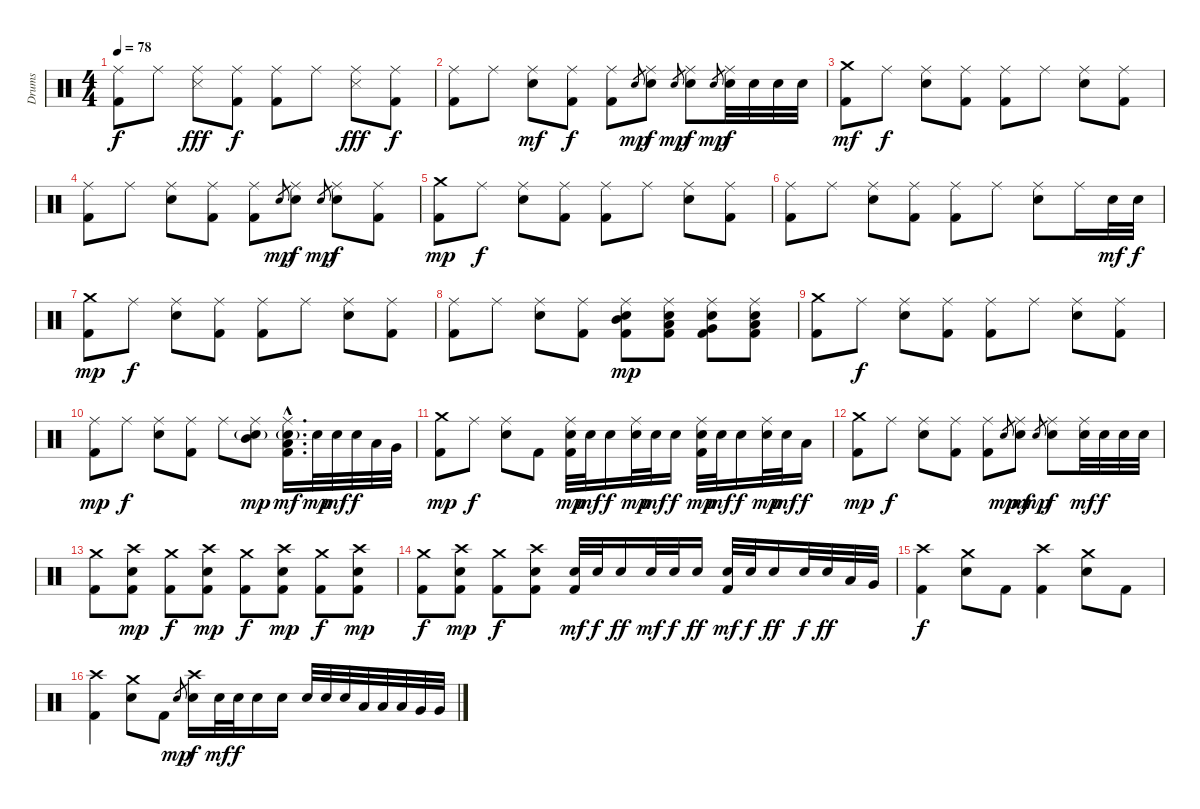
\track ("Drums" "Drums") {instrument percussion}
\staff {score}
\articulation defaults
\ts (4 4)
\tempo 78
\clef neutral
\ks c
("Ride (middle)" "Kick (hit) 2").8{dy f} "Ride (middle)".8 ("Ride (middle)" "Metronome (hit)").8{dy fff} ("Ride (middle)" "Kick (hit) 2").8{dy f} ("Ride (middle)" "Kick (hit) 2").8 "Ride (middle)".8 ("Ride (middle)" "Metronome (hit)").8{dy fff} ("Ride (middle)" "Kick (hit) 2").8{dy f} |
("Ride (middle)" "Kick (hit) 2").8 "Ride (middle)".8 ("Ride (middle)" "Electric Snare (hit)").8{dy mf} ("Ride (middle)" "Kick (hit) 2").8{dy f} ("Ride (middle)" "Kick (hit) 2").8 "Electric Snare (hit)".8{gr dy mp} ("Ride (middle)" "Electric Snare (hit)").8{dy f} "Electric Snare (hit)".8{gr dy mp} ("Ride (middle)" "Electric Snare (hit)").8{dy f} "Electric Snare (hit)".8{gr dy mp} ("Ride (middle)" "Electric Snare (hit)").32{dy f} "Electric Snare (hit)".32 "Electric Snare (hit)".32 "Electric Snare (hit)".32 |
("Crash medium (hit)" "Kick (hit) 2").8{dy mf} "Ride (middle)".8{dy f} ("Ride (middle)" "Electric Snare (hit)").8 ("Ride (middle)" "Kick (hit) 2").8 ("Ride (middle)" "Kick (hit) 2").8 "Ride (middle)".8 ("Ride (middle)" "Electric Snare (hit)").8 ("Ride (middle)" "Kick (hit) 2").8 |
("Ride (middle)" "Kick (hit) 2").8 "Ride (middle)".8 ("Ride (middle)" "Electric Snare (hit)").8 ("Ride (middle)" "Kick (hit) 2").8 ("Ride (middle)" "Kick (hit) 2").8 "Electric Snare (hit)".8{gr dy mp} ("Ride (middle)" "Electric Snare (hit)").8{dy f} "Electric Snare (hit)".8{gr dy mp} ("Ride (middle)" "Electric Snare (hit)").8{dy f} ("Ride (middle)" "Kick (hit) 2").8 |
("Crash medium (hit)" "Kick (hit) 2").8{dy mp} "Ride (middle)".8{dy f} ("Ride (middle)" "Electric Snare (hit)").8 ("Ride (middle)" "Kick (hit) 2").8 ("Ride (middle)" "Kick (hit) 2").8 "Ride (middle)".8 ("Ride (middle)" "Electric Snare (hit)").8 ("Ride (middle)" "Kick (hit) 2").8 |
("Ride (middle)" "Kick (hit) 2").8 "Ride (middle)".8 ("Ride (middle)" "Electric Snare (hit)").8 ("Ride (middle)" "Kick (hit) 2").8 ("Ride (middle)" "Kick (hit) 2").8 "Ride (middle)".8 ("Ride (middle)" "Electric Snare (hit)").8 "Ride (middle)".16 "Electric Snare (hit)".32{dy mf} "Electric Snare (hit)".32{dy f} |
("Crash medium (hit)" "Kick (hit) 2").8{dy mp} "Ride (middle)".8{dy f} ("Ride (middle)" "Electric Snare (hit)").8 ("Ride (middle)" "Kick (hit) 2").8 ("Ride (middle)" "Kick (hit) 2").8 "Ride (middle)".8 ("Ride (middle)" "Electric Snare (hit)").8 ("Ride (middle)" "Kick (hit) 2").8 |
("Ride (middle)" "Kick (hit) 2").8{volume 10} "Ride (middle)".8 ("Ride (middle)" "Electric Snare (hit)").8 ("Ride (middle)" "Kick (hit) 2").8 ("Ride (middle)" "Mid Tom (hit)" "Electric Snare (hit)" "Kick (hit) 2").8{dy mp} ("Ride (middle)" "Low Tom (hit)" "Electric Snare (hit)" "Kick (hit) 2").8 ("Ride (middle)" "Very Low Tom (hit)" "Electric Snare (hit)" "Kick (hit) 2").8 ("Ride (middle)" "Low Floor Tom (hit)" "Electric Snare (hit)" "Kick (hit) 2").8 |
("Crash medium (hit)" "Kick (hit) 2").8 "Ride (middle)".8{dy f} ("Ride (middle)" "Electric Snare (hit)").8 ("Ride (middle)" "Kick (hit) 2").8 ("Ride (middle)" "Kick (hit) 2").8 "Ride (middle)".8 ("Ride (middle)" "Electric Snare (hit)").8 ("Ride (middle)" "Kick (hit) 2").8 |
("Ride (middle)" "Kick (hit) 2").8{dy mp volume 12} "Ride (middle)".8{dy f} ("Ride (middle)" "Electric Snare (hit)").8 ("Ride (middle)" "Kick (hit) 2").8 "Ride (middle)".8 ("Ride (middle)" "Mid Tom (hit)" "Electric Snare (hit)"{g}).8{dy mp} ("Ride (middle)"{hac} "Low Tom (hit)"{hac} "Electric Snare (hit)"{g hac} "Kick (hit) 2"{hac}).16{d dy mf} "Electric Snare (hit)".32{dy mp} "Electric Snare (hit)".32{dy mf} "Electric Snare (hit)".32{dy f} "Low Tom (hit)".32 "Very Low Tom (hit)".32 |
("Crash medium (hit)" "Kick (hit) 2").8{dy mp} "Ride (middle)".8{dy f} ("Ride (middle)" "Electric Snare (hit)").8 "Kick (hit) 2".8 ("Ride (middle)" "Electric Snare (hit)" "Kick (hit) 2").32{dy mp} "Electric Snare (hit)".32{dy mf} "Electric Snare (hit)".16{dy f} ("Ride (middle)" "Electric Snare (hit)").32{dy mp} "Electric Snare (hit)".32{dy mf} "Electric Snare (hit)".16{dy f} ("Ride (middle)" "Electric Snare (hit)" "Kick (hit) 2").32{dy mp} "Electric Snare (hit)".32{dy mf} "Electric Snare (hit)".16{dy f} ("Ride (middle)" "Electric Snare (hit)").32{dy mp} "Electric Snare (hit)".32{dy mf} "Low Tom (hit)".16{dy f} |
("Crash medium (hit)" "Kick (hit) 2").8{dy mp} "Ride (middle)".8{dy f} ("Ride (middle)" "Electric Snare (hit)").8 ("Ride (middle)" "Kick (hit) 2").8 ("Ride (middle)" "Kick (hit) 2").8 "Electric Snare (hit)".8{gr dy mp} ("Ride (middle)" "Electric Snare (hit)").8{dy mf} "Electric Snare (hit)".8{gr dy mp} ("Ride (middle)" "Electric Snare (hit)").8{dy f} ("Ride (middle)" "Electric Snare (hit)").32{dy mf} "Electric Snare (hit)".32{dy f} "Electric Snare (hit)".32 "Electric Snare (hit)".32 |
("Crash medium (hit)" "Kick (hit) 2").8 ("Crash high (hit)" "Electric Snare (hit)" "Kick (hit) 2").8{dy mp} ("Crash medium (hit)" "Kick (hit) 2").8{dy f} ("Crash high (hit)" "Electric Snare (hit)" "Kick (hit) 2").8{dy mp} ("Crash medium (hit)" "Kick (hit) 2").8{dy f} ("Crash high (hit)" "Electric Snare (hit)" "Kick (hit) 2").8{dy mp} ("Crash medium (hit)" "Kick (hit) 2").8{dy f} ("Crash high (hit)" "Electric Snare (hit)" "Kick (hit) 2").8{dy mp} |
("Crash medium (hit)" "Kick (hit) 2").8{dy f} ("Crash high (hit)" "Electric Snare (hit)" "Kick (hit) 2").8{dy mp} ("Crash medium (hit)" "Kick (hit) 2").8{dy f} ("Crash high (hit)" "Electric Snare (hit)" "Kick (hit) 2").8 ("Electric Snare (hit)" "Kick (hit) 2").32{dy mf} "Electric Snare (hit)".32{dy f} "Electric Snare (hit)".16{dy ff} "Electric Snare (hit)".32{dy mf} "Electric Snare (hit)".32{dy f} "Electric Snare (hit)".16{dy ff} ("Electric Snare (hit)" "Kick (hit) 2").32{dy mf} "Electric Snare (hit)".32{dy f} "Electric Snare (hit)".16{dy ff} "Electric Snare (hit)".32{dy f} "Electric Snare (hit)".32{dy ff} "Low Tom (hit)".32 "Very Low Tom (hit)".32 |
("Crash high (hit)" "Kick (hit) 2").4{dy f} ("Crash medium (hit)" "Electric Snare (hit)").8 "Kick (hit) 2".8 ("Crash high (hit)" "Kick (hit) 2").4 ("Crash medium (hit)" "Electric Snare (hit)").8 "Kick (hit) 2".8 |
("Crash high (hit)" "Kick (hit) 2").4 ("Crash medium (hit)" "Electric Snare (hit)").8 "Kick (hit) 2".8 "Electric Snare (hit)".8{gr dy mp} ("Crash high (hit)" "Electric Snare (hit)").16{dy f} "Electric Snare (hit)".32{dy mf} "Electric Snare (hit)".32{dy f} "Electric Snare (hit)".16 "Electric Snare (hit)".16 "Electric Snare (hit)".32 "Electric Snare (hit)".32 "Electric Snare (hit)".32 "Low Tom (hit)".32 "Low Tom (hit)".32 "Low Tom (hit)".32 "Very Low Tom (hit)".32 "Very Low Tom (hit)".32
